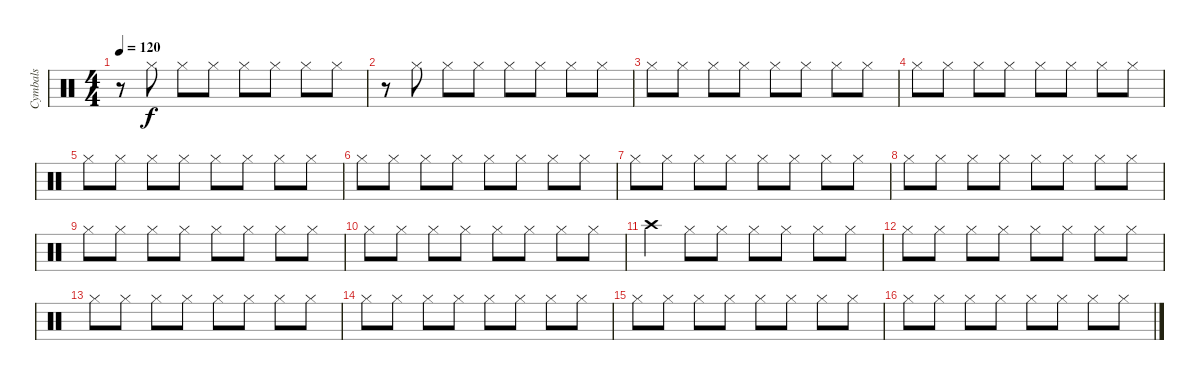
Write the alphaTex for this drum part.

\track ("Cymbals" "Cymbals") {instrument percussion}
\staff {score}
\articulation defaults
\ts (4 4)
\tempo 120
\clef neutral
\ks c
r.8{dy f} "Hi-Hat (closed)".8 "Hi-Hat (closed)".8 "Hi-Hat (closed)".8 "Hi-Hat (closed)".8 "Hi-Hat (closed)".8 "Hi-Hat (closed)".8 "Hi-Hat (closed)".8 |
r.8 "Hi-Hat (closed)".8 "Hi-Hat (closed)".8 "Hi-Hat (closed)".8 "Hi-Hat (closed)".8 "Hi-Hat (closed)".8 "Hi-Hat (closed)".8 "Hi-Hat (closed)".8 |
"Hi-Hat (closed)".8 "Hi-Hat (closed)".8 "Hi-Hat (closed)".8 "Hi-Hat (closed)".8 "Hi-Hat (closed)".8 "Hi-Hat (closed)".8 "Hi-Hat (closed)".8 "Hi-Hat (closed)".8 |
"Hi-Hat (closed)".8 "Hi-Hat (closed)".8 "Hi-Hat (closed)".8 "Hi-Hat (closed)".8 "Hi-Hat (closed)".8 "Hi-Hat (closed)".8 "Hi-Hat (closed)".8 "Hi-Hat (closed)".8 |
"Hi-Hat (closed)".8 "Hi-Hat (closed)".8 "Hi-Hat (closed)".8 "Hi-Hat (closed)".8 "Hi-Hat (closed)".8 "Hi-Hat (closed)".8 "Hi-Hat (closed)".8 "Hi-Hat (closed)".8 |
"Hi-Hat (closed)".8 "Hi-Hat (closed)".8 "Hi-Hat (closed)".8 "Hi-Hat (closed)".8 "Hi-Hat (closed)".8 "Hi-Hat (closed)".8 "Hi-Hat (closed)".8 "Hi-Hat (closed)".8 |
"Hi-Hat (closed)".8 "Hi-Hat (closed)".8 "Hi-Hat (closed)".8 "Hi-Hat (closed)".8 "Hi-Hat (closed)".8 "Hi-Hat (closed)".8 "Hi-Hat (closed)".8 "Hi-Hat (closed)".8 |
"Hi-Hat (closed)".8 "Hi-Hat (closed)".8 "Hi-Hat (closed)".8 "Hi-Hat (closed)".8 "Hi-Hat (closed)".8 "Hi-Hat (closed)".8 "Hi-Hat (closed)".8 "Hi-Hat (closed)".8 |
"Hi-Hat (closed)".8 "Hi-Hat (closed)".8 "Hi-Hat (closed)".8 "Hi-Hat (closed)".8 "Hi-Hat (closed)".8 "Hi-Hat (closed)".8 "Hi-Hat (closed)".8 "Hi-Hat (closed)".8 |
"Hi-Hat (closed)".8 "Hi-Hat (closed)".8 "Hi-Hat (closed)".8 "Hi-Hat (closed)".8 "Hi-Hat (closed)".8 "Hi-Hat (closed)".8 "Hi-Hat (closed)".8 "Hi-Hat (closed)".8 |
"Crash high (hit)".4 "Hi-Hat (closed)".8 "Hi-Hat (closed)".8 "Hi-Hat (closed)".8 "Hi-Hat (closed)".8 "Hi-Hat (closed)".8 "Hi-Hat (closed)".8 |
"Hi-Hat (closed)".8 "Hi-Hat (closed)".8 "Hi-Hat (closed)".8 "Hi-Hat (closed)".8 "Hi-Hat (closed)".8 "Hi-Hat (closed)".8 "Hi-Hat (closed)".8 "Hi-Hat (closed)".8 |
"Hi-Hat (closed)".8 "Hi-Hat (closed)".8 "Hi-Hat (closed)".8 "Hi-Hat (closed)".8 "Hi-Hat (closed)".8 "Hi-Hat (closed)".8 "Hi-Hat (closed)".8 "Hi-Hat (closed)".8 |
"Hi-Hat (closed)".8 "Hi-Hat (closed)".8 "Hi-Hat (closed)".8 "Hi-Hat (closed)".8 "Hi-Hat (closed)".8 "Hi-Hat (closed)".8 "Hi-Hat (closed)".8 "Hi-Hat (closed)".8 |
"Hi-Hat (closed)".8 "Hi-Hat (closed)".8 "Hi-Hat (closed)".8 "Hi-Hat (closed)".8 "Hi-Hat (closed)".8 "Hi-Hat (closed)".8 "Hi-Hat (closed)".8 "Hi-Hat (closed)".8 |
"Hi-Hat (closed)".8 "Hi-Hat (closed)".8 "Hi-Hat (closed)".8 "Hi-Hat (closed)".8 "Hi-Hat (closed)".8 "Hi-Hat (closed)".8 "Hi-Hat (closed)".8 "Hi-Hat (closed)".8
